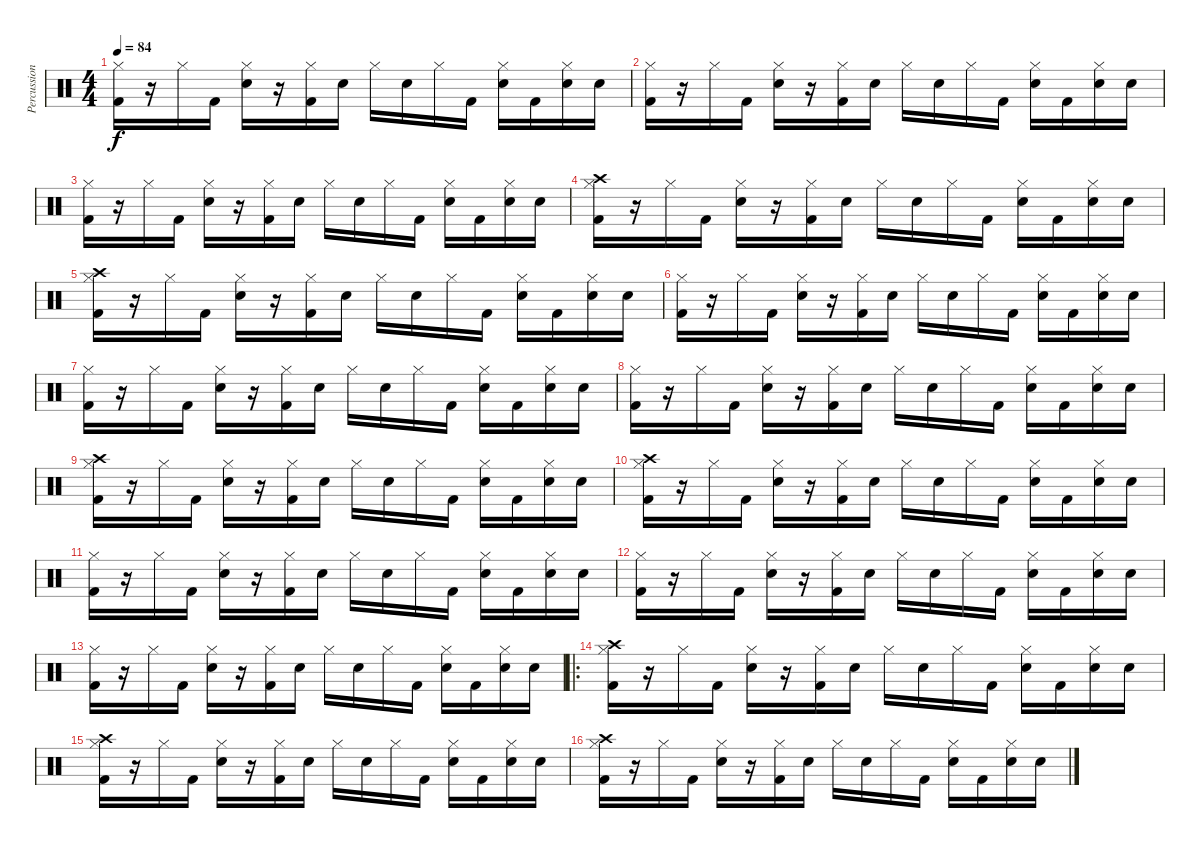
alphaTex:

\track ("Percussion" "Percussion") {instrument percussion}
\staff {score}
\articulation defaults
\ts (4 4)
\tempo 84
\clef neutral
\ks c
("Hi-Hat (closed)" "Kick (hit) 2").16{dy f} r.16 "Hi-Hat (closed)".16 "Kick (hit) 2".16 ("Hi-Hat (closed)" "Snare (hit) 2").16 r.16 ("Hi-Hat (closed)" "Kick (hit) 2").16 "Snare (hit) 2".16 "Hi-Hat (closed)".16 "Snare (hit) 2".16 "Hi-Hat (closed)".16 "Kick (hit) 2".16 ("Hi-Hat (closed)" "Snare (hit) 2").16 "Kick (hit) 2".16 ("Hi-Hat (closed)" "Snare (hit) 2").16 "Snare (hit) 2".16 |
("Hi-Hat (closed)" "Kick (hit) 2").16 r.16 "Hi-Hat (closed)".16 "Kick (hit) 2".16 ("Hi-Hat (closed)" "Snare (hit) 2").16 r.16 ("Hi-Hat (closed)" "Kick (hit) 2").16 "Snare (hit) 2".16 "Hi-Hat (closed)".16 "Snare (hit) 2".16 "Hi-Hat (closed)".16 "Kick (hit) 2".16 ("Hi-Hat (closed)" "Snare (hit) 2").16 "Kick (hit) 2".16 ("Hi-Hat (closed)" "Snare (hit) 2").16 "Snare (hit) 2".16 |
("Hi-Hat (closed)" "Kick (hit) 2").16 r.16 "Hi-Hat (closed)".16 "Kick (hit) 2".16 ("Hi-Hat (closed)" "Snare (hit) 2").16 r.16 ("Hi-Hat (closed)" "Kick (hit) 2").16 "Snare (hit) 2".16 "Hi-Hat (closed)".16 "Snare (hit) 2".16 "Hi-Hat (closed)".16 "Kick (hit) 2".16 ("Hi-Hat (closed)" "Snare (hit) 2").16 "Kick (hit) 2".16 ("Hi-Hat (closed)" "Snare (hit) 2").16 "Snare (hit) 2".16 |
("Crash high (hit)" "Hi-Hat (closed)" "Kick (hit) 2").16 r.16 "Hi-Hat (closed)".16 "Kick (hit) 2".16 ("Hi-Hat (closed)" "Snare (hit) 2").16 r.16 ("Hi-Hat (closed)" "Kick (hit) 2").16 "Snare (hit) 2".16 "Hi-Hat (closed)".16 "Snare (hit) 2".16 "Hi-Hat (closed)".16 "Kick (hit) 2".16 ("Hi-Hat (closed)" "Snare (hit) 2").16 "Kick (hit) 2".16 ("Hi-Hat (closed)" "Snare (hit) 2").16 "Snare (hit) 2".16 |
("Crash high (hit)" "Hi-Hat (closed)" "Kick (hit) 2").16 r.16 "Hi-Hat (closed)".16 "Kick (hit) 2".16 ("Hi-Hat (closed)" "Snare (hit) 2").16 r.16 ("Hi-Hat (closed)" "Kick (hit) 2").16 "Snare (hit) 2".16 "Hi-Hat (closed)".16 "Snare (hit) 2".16 "Hi-Hat (closed)".16 "Kick (hit) 2".16 ("Hi-Hat (closed)" "Snare (hit) 2").16 "Kick (hit) 2".16 ("Hi-Hat (closed)" "Snare (hit) 2").16 "Snare (hit) 2".16 |
("Hi-Hat (closed)" "Kick (hit) 2").16 r.16 "Hi-Hat (closed)".16 "Kick (hit) 2".16 ("Hi-Hat (closed)" "Snare (hit) 2").16 r.16 ("Hi-Hat (closed)" "Kick (hit) 2").16 "Snare (hit) 2".16 "Hi-Hat (closed)".16 "Snare (hit) 2".16 "Hi-Hat (closed)".16 "Kick (hit) 2".16 ("Hi-Hat (closed)" "Snare (hit) 2").16 "Kick (hit) 2".16 ("Hi-Hat (closed)" "Snare (hit) 2").16 "Snare (hit) 2".16 |
("Hi-Hat (closed)" "Kick (hit) 2").16 r.16 "Hi-Hat (closed)".16 "Kick (hit) 2".16 ("Hi-Hat (closed)" "Snare (hit) 2").16 r.16 ("Hi-Hat (closed)" "Kick (hit) 2").16 "Snare (hit) 2".16 "Hi-Hat (closed)".16 "Snare (hit) 2".16 "Hi-Hat (closed)".16 "Kick (hit) 2".16 ("Hi-Hat (closed)" "Snare (hit) 2").16 "Kick (hit) 2".16 ("Hi-Hat (closed)" "Snare (hit) 2").16 "Snare (hit) 2".16 |
("Hi-Hat (closed)" "Kick (hit) 2").16 r.16 "Hi-Hat (closed)".16 "Kick (hit) 2".16 ("Hi-Hat (closed)" "Snare (hit) 2").16 r.16 ("Hi-Hat (closed)" "Kick (hit) 2").16 "Snare (hit) 2".16 "Hi-Hat (closed)".16 "Snare (hit) 2".16 "Hi-Hat (closed)".16 "Kick (hit) 2".16 ("Hi-Hat (closed)" "Snare (hit) 2").16 "Kick (hit) 2".16 ("Hi-Hat (closed)" "Snare (hit) 2").16 "Snare (hit) 2".16 |
("Crash high (hit)" "Hi-Hat (closed)" "Kick (hit) 2").16 r.16 "Hi-Hat (closed)".16 "Kick (hit) 2".16 ("Hi-Hat (closed)" "Snare (hit) 2").16 r.16 ("Hi-Hat (closed)" "Kick (hit) 2").16 "Snare (hit) 2".16 "Hi-Hat (closed)".16 "Snare (hit) 2".16 "Hi-Hat (closed)".16 "Kick (hit) 2".16 ("Hi-Hat (closed)" "Snare (hit) 2").16 "Kick (hit) 2".16 ("Hi-Hat (closed)" "Snare (hit) 2").16 "Snare (hit) 2".16 |
("Crash high (hit)" "Hi-Hat (closed)" "Kick (hit) 2").16 r.16 "Hi-Hat (closed)".16 "Kick (hit) 2".16 ("Hi-Hat (closed)" "Snare (hit) 2").16 r.16 ("Hi-Hat (closed)" "Kick (hit) 2").16 "Snare (hit) 2".16 "Hi-Hat (closed)".16 "Snare (hit) 2".16 "Hi-Hat (closed)".16 "Kick (hit) 2".16 ("Hi-Hat (closed)" "Snare (hit) 2").16 "Kick (hit) 2".16 ("Hi-Hat (closed)" "Snare (hit) 2").16 "Snare (hit) 2".16 |
("Hi-Hat (closed)" "Kick (hit) 2").16 r.16 "Hi-Hat (closed)".16 "Kick (hit) 2".16 ("Hi-Hat (closed)" "Snare (hit) 2").16 r.16 ("Hi-Hat (closed)" "Kick (hit) 2").16 "Snare (hit) 2".16 "Hi-Hat (closed)".16 "Snare (hit) 2".16 "Hi-Hat (closed)".16 "Kick (hit) 2".16 ("Hi-Hat (closed)" "Snare (hit) 2").16 "Kick (hit) 2".16 ("Hi-Hat (closed)" "Snare (hit) 2").16 "Snare (hit) 2".16 |
("Hi-Hat (closed)" "Kick (hit) 2").16 r.16 "Hi-Hat (closed)".16 "Kick (hit) 2".16 ("Hi-Hat (closed)" "Snare (hit) 2").16 r.16 ("Hi-Hat (closed)" "Kick (hit) 2").16 "Snare (hit) 2".16 "Hi-Hat (closed)".16 "Snare (hit) 2".16 "Hi-Hat (closed)".16 "Kick (hit) 2".16 ("Hi-Hat (closed)" "Snare (hit) 2").16 "Kick (hit) 2".16 ("Hi-Hat (closed)" "Snare (hit) 2").16 "Snare (hit) 2".16 |
("Hi-Hat (closed)" "Kick (hit) 2").16 r.16 "Hi-Hat (closed)".16 "Kick (hit) 2".16 ("Hi-Hat (closed)" "Snare (hit) 2").16 r.16 ("Hi-Hat (closed)" "Kick (hit) 2").16 "Snare (hit) 2".16 "Hi-Hat (closed)".16 "Snare (hit) 2".16 "Hi-Hat (closed)".16 "Kick (hit) 2".16 ("Hi-Hat (closed)" "Snare (hit) 2").16 "Kick (hit) 2".16 ("Hi-Hat (closed)" "Snare (hit) 2").16 "Snare (hit) 2".16 |
\ro
("Crash high (hit)" "Hi-Hat (closed)" "Kick (hit) 2").16 r.16 "Hi-Hat (closed)".16 "Kick (hit) 2".16 ("Hi-Hat (closed)" "Snare (hit) 2").16 r.16 ("Hi-Hat (closed)" "Kick (hit) 2").16 "Snare (hit) 2".16 "Hi-Hat (closed)".16 "Snare (hit) 2".16 "Hi-Hat (closed)".16 "Kick (hit) 2".16 ("Hi-Hat (closed)" "Snare (hit) 2").16 "Kick (hit) 2".16 ("Hi-Hat (closed)" "Snare (hit) 2").16 "Snare (hit) 2".16 |
("Crash high (hit)" "Hi-Hat (closed)" "Kick (hit) 2").16 r.16 "Hi-Hat (closed)".16 "Kick (hit) 2".16 ("Hi-Hat (closed)" "Snare (hit) 2").16 r.16 ("Hi-Hat (closed)" "Kick (hit) 2").16 "Snare (hit) 2".16 "Hi-Hat (closed)".16 "Snare (hit) 2".16 "Hi-Hat (closed)".16 "Kick (hit) 2".16 ("Hi-Hat (closed)" "Snare (hit) 2").16 "Kick (hit) 2".16 ("Hi-Hat (closed)" "Snare (hit) 2").16 "Snare (hit) 2".16 |
("Crash high (hit)" "Hi-Hat (closed)" "Kick (hit) 2").16 r.16 "Hi-Hat (closed)".16 "Kick (hit) 2".16 ("Hi-Hat (closed)" "Snare (hit) 2").16 r.16 ("Hi-Hat (closed)" "Kick (hit) 2").16 "Snare (hit) 2".16 "Hi-Hat (closed)".16 "Snare (hit) 2".16 "Hi-Hat (closed)".16 "Kick (hit) 2".16 ("Hi-Hat (closed)" "Snare (hit) 2").16 "Kick (hit) 2".16 ("Hi-Hat (closed)" "Snare (hit) 2").16 "Snare (hit) 2".16
